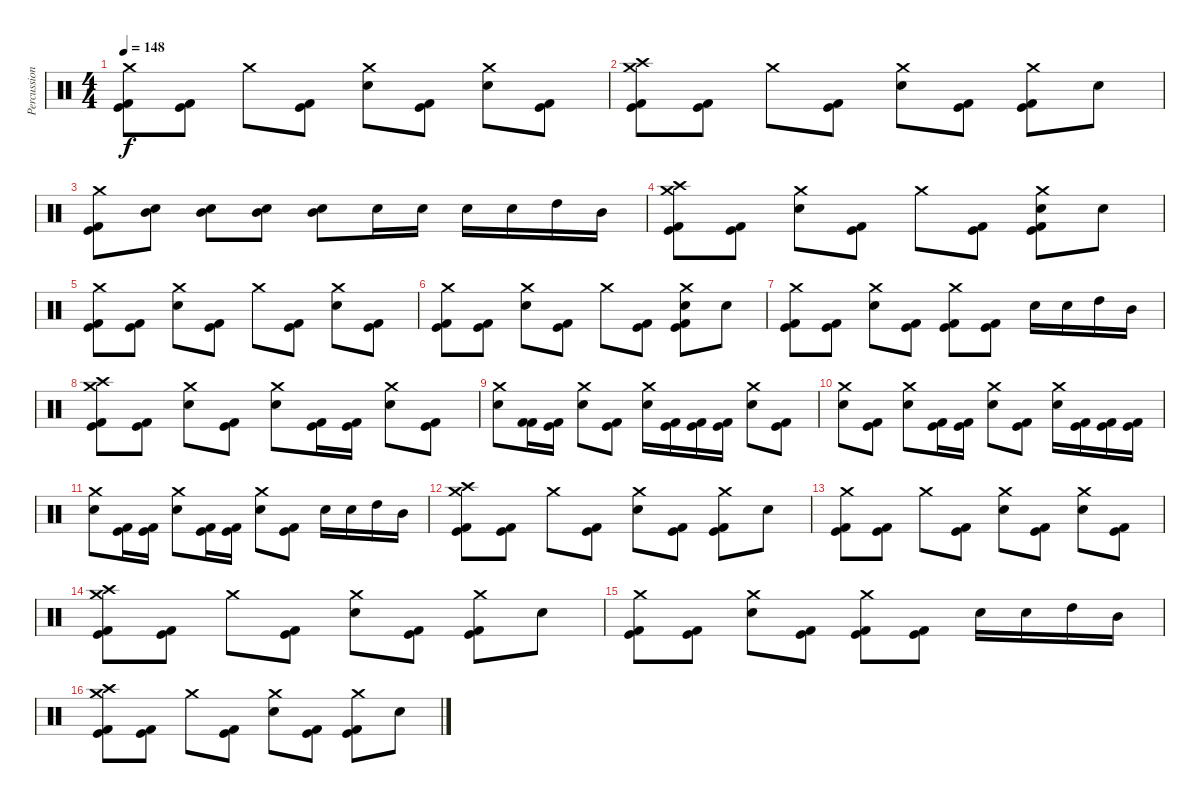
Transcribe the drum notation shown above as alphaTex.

\track ("Percussioni" "Percussion") {instrument percussion}
\staff {score}
\articulation defaults
\ts (4 4)
\tempo 148
\clef neutral
\ks c
("Crash medium (hit)" "Kick (hit)" "Kick (hit) 2").8{dy f} ("Kick (hit)" "Kick (hit) 2").8 "Crash medium (hit)".8 ("Kick (hit)" "Kick (hit) 2").8 ("Crash medium (hit)" "Snare (hit) 2").8 ("Kick (hit)" "Kick (hit) 2").8 ("Crash medium (hit)" "Snare (hit) 2").8 ("Kick (hit)" "Kick (hit) 2").8 |
("Crash high (hit)" "Crash medium (hit)" "Kick (hit)" "Kick (hit) 2").8 ("Kick (hit)" "Kick (hit) 2").8 "Crash medium (hit)".8 ("Kick (hit)" "Kick (hit) 2").8 ("Crash medium (hit)" "Snare (hit) 2").8 ("Kick (hit)" "Kick (hit) 2").8 ("Crash medium (hit)" "Kick (hit) 2" "Kick (hit)").8 "Snare (hit) 2".8 |
("Crash medium (hit)" "Kick (hit)" "Kick (hit) 2").8 ("Mid Tom (hit)" "Snare (hit) 2").8 ("Mid Tom (hit)" "Snare (hit) 2").8 ("Mid Tom (hit)" "Snare (hit) 2").8 ("Mid Tom (hit)" "Snare (hit) 2").8 "Snare (hit) 2".16 "Snare (hit) 2".16 "Snare (hit) 2".16 "Snare (hit) 2".16 "High Tom (hit)".16 "Mid Tom (hit)".16 |
("Crash high (hit)" "Crash medium (hit)" "Kick (hit)" "Kick (hit) 2").8 ("Kick (hit)" "Kick (hit) 2").8 ("Crash medium (hit)" "Snare (hit) 2").8 ("Kick (hit)" "Kick (hit) 2").8 "Crash medium (hit)".8 ("Kick (hit)" "Kick (hit) 2").8 ("Crash medium (hit)" "Snare (hit) 2" "Kick (hit) 2" "Kick (hit)").8 "Snare (hit) 2".8 |
("Crash medium (hit)" "Kick (hit)" "Kick (hit) 2").8 ("Kick (hit)" "Kick (hit) 2").8 ("Crash medium (hit)" "Snare (hit) 2").8 ("Kick (hit)" "Kick (hit) 2").8 "Crash medium (hit)".8 ("Kick (hit)" "Kick (hit) 2").8 ("Crash medium (hit)" "Snare (hit) 2").8 ("Kick (hit)" "Kick (hit) 2").8 |
("Crash medium (hit)" "Kick (hit)" "Kick (hit) 2").8 ("Kick (hit)" "Kick (hit) 2").8 ("Crash medium (hit)" "Snare (hit) 2").8 ("Kick (hit)" "Kick (hit) 2").8 "Crash medium (hit)".8 ("Kick (hit)" "Kick (hit) 2").8 ("Crash medium (hit)" "Snare (hit) 2" "Kick (hit) 2" "Kick (hit)").8 "Snare (hit) 2".8 |
("Crash medium (hit)" "Kick (hit)" "Kick (hit) 2").8 ("Kick (hit)" "Kick (hit) 2").8 ("Crash medium (hit)" "Snare (hit) 2").8 ("Kick (hit)" "Kick (hit) 2").8 ("Crash medium (hit)" "Kick (hit)" "Kick (hit) 2").8 ("Kick (hit)" "Kick (hit) 2").8 "Snare (hit) 2".16 "Snare (hit) 2".16 "High Tom (hit)".16 "Mid Tom (hit)".16 |
("Crash high (hit)" "Crash medium (hit)" "Kick (hit)" "Kick (hit) 2").8 ("Kick (hit)" "Kick (hit) 2").8 ("Crash medium (hit)" "Snare (hit) 2").8 ("Kick (hit)" "Kick (hit) 2").8 ("Crash medium (hit)" "Snare (hit) 2").8 ("Kick (hit)" "Kick (hit) 2").16 ("Kick (hit)" "Kick (hit) 2").16 ("Crash medium (hit)" "Snare (hit) 2").8 ("Kick (hit)" "Kick (hit) 2").8 |
("Crash medium (hit)" "Snare (hit) 2").8 ("Kick (hit) 2" "Kick (hit) 2").16 ("Kick (hit)" "Kick (hit) 2").16 ("Crash medium (hit)" "Snare (hit) 2").8 ("Kick (hit)" "Kick (hit) 2").8 ("Crash medium (hit)" "Snare (hit) 2").16 ("Kick (hit) 2" "Kick (hit)").16 ("Kick (hit) 2" "Kick (hit)").16 ("Kick (hit)" "Kick (hit) 2").16 ("Crash medium (hit)" "Snare (hit) 2").8 ("Kick (hit)" "Kick (hit) 2").8 |
("Crash medium (hit)" "Snare (hit) 2").8 ("Kick (hit)" "Kick (hit) 2").8 ("Crash medium (hit)" "Snare (hit) 2").8 ("Kick (hit)" "Kick (hit) 2").16 ("Kick (hit)" "Kick (hit) 2").16 ("Crash medium (hit)" "Snare (hit) 2").8 ("Kick (hit)" "Kick (hit) 2").8 ("Crash medium (hit)" "Snare (hit) 2").16 ("Kick (hit)" "Kick (hit) 2").16 ("Kick (hit)" "Kick (hit) 2").16 ("Kick (hit)" "Kick (hit) 2").16 |
("Crash medium (hit)" "Snare (hit) 2").8 ("Kick (hit)" "Kick (hit) 2").16 ("Kick (hit)" "Kick (hit) 2").16 ("Crash medium (hit)" "Snare (hit) 2").8 ("Kick (hit)" "Kick (hit) 2").16 ("Kick (hit)" "Kick (hit) 2").16 ("Crash medium (hit)" "Snare (hit) 2").8 ("Kick (hit)" "Kick (hit) 2").8 "Snare (hit) 2".16 "Snare (hit) 2".16 "High Tom (hit)".16 "Mid Tom (hit)".16 |
("Crash high (hit)" "Crash medium (hit)" "Kick (hit)" "Kick (hit) 2").8 ("Kick (hit)" "Kick (hit) 2").8 "Crash medium (hit)".8 ("Kick (hit)" "Kick (hit) 2").8 ("Crash medium (hit)" "Snare (hit) 2").8 ("Kick (hit)" "Kick (hit) 2").8 ("Crash medium (hit)" "Kick (hit) 2" "Kick (hit)").8 "Snare (hit) 2".8 |
("Crash medium (hit)" "Kick (hit)" "Kick (hit) 2").8 ("Kick (hit)" "Kick (hit) 2").8 "Crash medium (hit)".8 ("Kick (hit)" "Kick (hit) 2").8 ("Crash medium (hit)" "Snare (hit) 2").8 ("Kick (hit)" "Kick (hit) 2").8 ("Crash medium (hit)" "Snare (hit) 2").8 ("Kick (hit)" "Kick (hit) 2").8 |
("Crash high (hit)" "Crash medium (hit)" "Kick (hit)" "Kick (hit) 2").8 ("Kick (hit)" "Kick (hit) 2").8 "Crash medium (hit)".8 ("Kick (hit)" "Kick (hit) 2").8 ("Crash medium (hit)" "Snare (hit) 2").8 ("Kick (hit)" "Kick (hit) 2").8 ("Crash medium (hit)" "Kick (hit) 2" "Kick (hit)").8 "Snare (hit) 2".8 |
("Crash medium (hit)" "Kick (hit)" "Kick (hit) 2").8 ("Kick (hit)" "Kick (hit) 2").8 ("Crash medium (hit)" "Snare (hit) 2").8 ("Kick (hit)" "Kick (hit) 2").8 ("Crash medium (hit)" "Kick (hit)" "Kick (hit) 2").8 ("Kick (hit)" "Kick (hit) 2").8 "Snare (hit) 2".16 "Snare (hit) 2".16 "High Tom (hit)".16 "Mid Tom (hit)".16 |
("Crash high (hit)" "Crash medium (hit)" "Kick (hit)" "Kick (hit) 2").8 ("Kick (hit)" "Kick (hit) 2").8 "Crash medium (hit)".8 ("Kick (hit)" "Kick (hit) 2").8 ("Crash medium (hit)" "Snare (hit) 2").8 ("Kick (hit)" "Kick (hit) 2").8 ("Crash medium (hit)" "Kick (hit) 2" "Kick (hit)").8 "Snare (hit) 2".8
